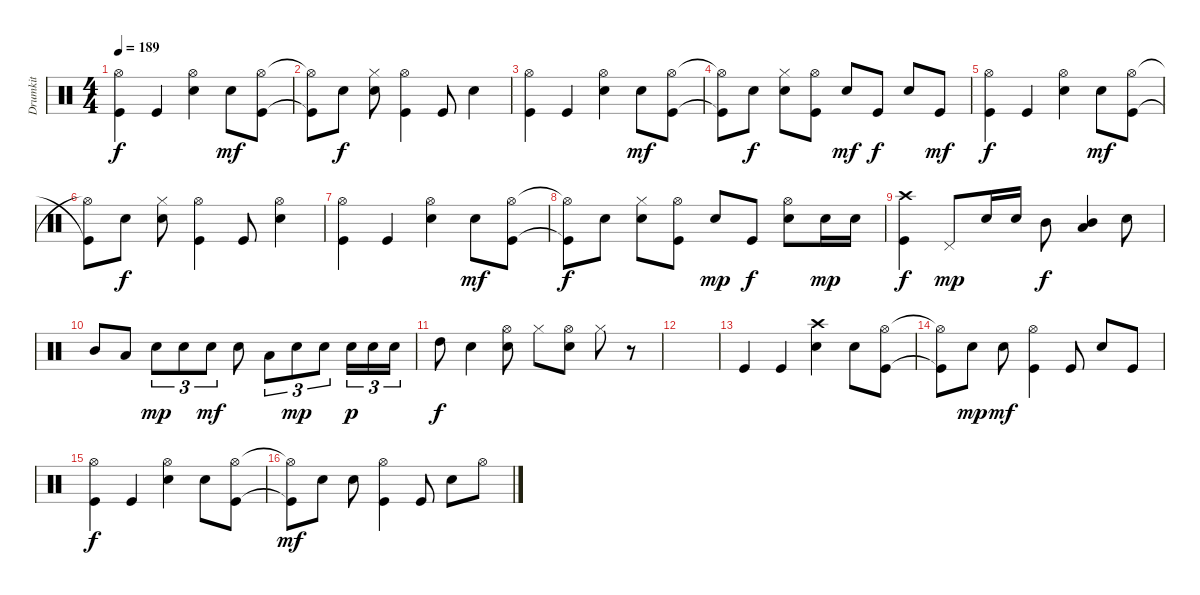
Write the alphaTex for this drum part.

\track ("Drumkit" "Drumkit") {instrument percussion}
\staff {score}
\articulation defaults
\ts (4 4)
\tempo 189
\clef neutral
\ks c
("Kick (hit)" "Hi-Hat (open)").4{dy f} "Kick (hit)".4 ("Snare (hit) 2" "Hi-Hat (open)").4 "Snare (hit) 2".8{dy mf} ("Kick (hit)" "Hi-Hat (open)").8 |
("Kick (hit)"{t} "Hi-Hat (open)"{t}).8 "Snare (hit) 2".8{dy f} ("Snare (hit) 2" "Hi-Hat (closed)").8 ("Kick (hit)" "Hi-Hat (open)").4 "Kick (hit)".8 "Snare (hit) 2".4 |
("Kick (hit)" "Hi-Hat (open)").4 "Kick (hit)".4 ("Snare (hit) 2" "Hi-Hat (open)").4 "Snare (hit) 2".8{dy mf} ("Kick (hit)" "Hi-Hat (open)").8 |
("Kick (hit)"{t} "Hi-Hat (open)"{t}).8 "Snare (hit) 2".8{dy f} ("Snare (hit) 2" "Hi-Hat (closed)").8 ("Kick (hit)" "Hi-Hat (open)").8 "Snare (hit) 2".8{dy mf} "Kick (hit)".8{dy f} "Snare (hit) 2".8 "Kick (hit)".8{dy mf} |
("Kick (hit)" "Hi-Hat (open)").4{dy f} "Kick (hit)".4 ("Snare (hit) 2" "Hi-Hat (open)").4 "Snare (hit) 2".8{dy mf} ("Kick (hit)" "Hi-Hat (open)").8 |
("Hi-Hat (open)"{t} "Kick (hit)"{t}).8 "Snare (hit) 2".8{dy f} ("Snare (hit) 2" "Hi-Hat (closed)").8 ("Kick (hit)" "Hi-Hat (open)").4 "Kick (hit)".8 ("Snare (hit) 2" "Hi-Hat (open)").4 |
("Kick (hit)" "Hi-Hat (open)").4 "Kick (hit)".4 ("Snare (hit) 2" "Hi-Hat (open)").4 "Snare (hit) 2".8{dy mf} ("Kick (hit)" "Hi-Hat (open)").8 |
("Kick (hit)"{t} "Hi-Hat (open)"{t}).8{dy f} "Snare (hit) 2".8 ("Snare (hit) 2" "Hi-Hat (closed)").8 ("Kick (hit)" "Hi-Hat (open)").8 "Snare (hit) 2".8{dy mp} "Kick (hit)".8{dy f} ("Snare (hit) 2" "Hi-Hat (open)").8 "Snare (hit) 2".16{dy mp} "Snare (hit) 2".16 |
("Kick (hit)" "Crash high (hit)").4{dy f} "Pedal Hi-Hat (hit)".8{dy mp} "Snare (hit) 2".16 "Snare (hit) 2".16 "Mid Tom (hit)".8{dy f} ("Mid Tom (hit)" "Low Tom (hit)").4 "Snare (hit) 2".8 |
"Mid Tom (hit)".8 "Low Tom (hit)".8 "Snare (hit) 2".8{tu (3 2) dy mp} "Snare (hit) 2".8{tu (3 2)} "Snare (hit) 2".8{tu (3 2) dy mf} "Snare (hit) 2".8 "Low Tom (hit)".8{tu (3 2)} "Snare (hit) 2".8{tu (3 2) dy mp} "Snare (hit) 2".8{tu (3 2)} "Snare (hit) 2".16{tu (3 2) dy p} "Snare (hit) 2".16{tu (3 2)} "Snare (hit) 2".16{tu (3 2)} |
"High Tom (hit)".8{dy f} "Snare (hit) 2".4 ("Snare (hit) 2" "Hi-Hat (open)").8 "Hi-Hat (closed)".8 ("Snare (hit) 2" "Hi-Hat (open)").8 "Hi-Hat (closed)".8 r.8 |
|
"Kick (hit)".4 "Kick (hit)".4 ("Snare (hit) 2" "Crash high (hit)").4 "Snare (hit) 2".8 ("Kick (hit)" "Hi-Hat (open)").8 |
("Kick (hit)"{t} "Hi-Hat (open)"{t}).8 "Snare (hit) 2".8{dy mp} "Snare (hit) 2".8{dy mf} ("Kick (hit)" "Hi-Hat (open)").4 "Kick (hit)".8 "Snare (hit) 2".8 "Kick (hit)".8 |
("Kick (hit)" "Hi-Hat (open)").4{dy f} "Kick (hit)".4 ("Snare (hit) 2" "Hi-Hat (open)").4 "Snare (hit) 2".8 ("Kick (hit)" "Hi-Hat (open)").8 |
("Kick (hit)"{t} "Hi-Hat (open)"{t}).8{dy mf} "Snare (hit) 2".8 "Snare (hit) 2".8 ("Kick (hit)" "Hi-Hat (open)").4 "Kick (hit)".8 "Snare (hit) 2".8 "Hi-Hat (open)".8
